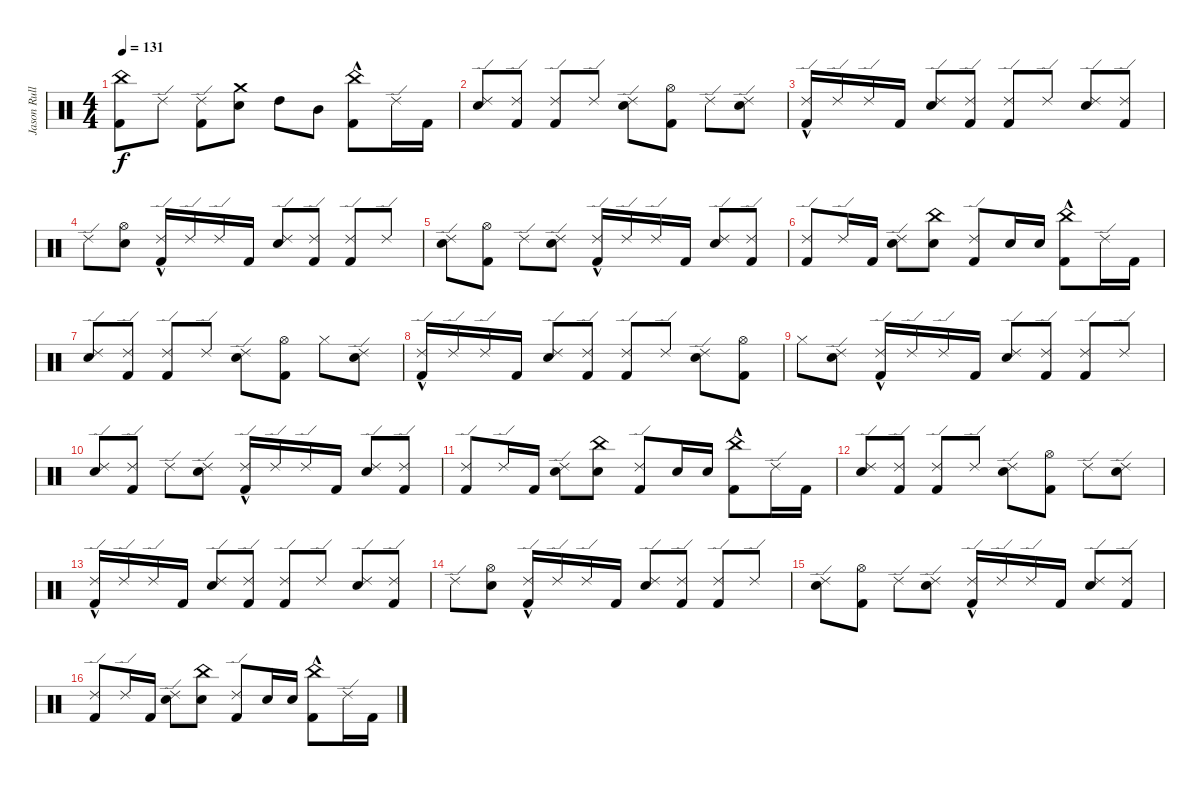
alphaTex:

\track ("Jason Rullo (Drums)" "Jason Rull") {instrument percussion}
\staff {score}
\articulation defaults
\ts (4 4)
\tempo 131
\clef neutral
\ks c
("China (hit)" "Kick (hit) 2").8{dy f} "Ride (edge) 2".8 ("Ride (edge) 2" "Kick (hit) 2").8 ("Crash medium (hit)" "Electric Snare (hit)").8 "High Tom (hit)".8 "Mid Tom (hit)".8 ("Kick (hit) 2"{hac} "China (hit)").8 "Ride (edge) 2".16 "Kick (hit) 2".16 |
("Electric Snare (hit)" "Ride (edge) 2").8 ("Kick (hit) 2" "Ride (edge) 2").8 ("Kick (hit) 2" "Ride (edge) 2").8 "Ride (edge) 2".8 ("Electric Snare (hit)" "Ride (edge) 2").8 ("Hi-Hat (open)" "Kick (hit) 2").8 "Ride (edge) 2".8 ("Electric Snare (hit)" "Ride (edge) 2").8 |
("Ride (edge) 2" "Kick (hit) 2"{hac}).16 "Ride (edge) 2".16 "Ride (edge) 2".16 "Kick (hit) 2".16 ("Electric Snare (hit)" "Ride (edge) 2").8 ("Kick (hit) 2" "Ride (edge) 2").8 ("Kick (hit) 2" "Ride (edge) 2").8 "Ride (edge) 2".8 ("Electric Snare (hit)" "Ride (edge) 2").8 ("Kick (hit) 2" "Ride (edge) 2").8 |
"Ride (edge) 2".8 ("Hi-Hat (open)" "Electric Snare (hit)").8 ("Ride (edge) 2" "Kick (hit) 2"{hac}).16 "Ride (edge) 2".16 "Ride (edge) 2".16 "Kick (hit) 2".16 ("Electric Snare (hit)" "Ride (edge) 2").8 ("Kick (hit) 2" "Ride (edge) 2").8 ("Kick (hit) 2" "Ride (edge) 2").8 "Ride (edge) 2".8 |
("Electric Snare (hit)" "Ride (edge) 2").8 ("Hi-Hat (open)" "Kick (hit) 2").8 "Ride (edge) 2".8 ("Electric Snare (hit)" "Ride (edge) 2").8 ("Ride (edge) 2" "Kick (hit) 2"{hac}).16 "Ride (edge) 2".16 "Ride (edge) 2".16 "Kick (hit) 2".16 ("Electric Snare (hit)" "Ride (edge) 2").8 ("Kick (hit) 2" "Ride (edge) 2").8 |
("Kick (hit) 2" "Ride (edge) 2").8 "Ride (edge) 2".16 "Kick (hit) 2".16 ("Electric Snare (hit)" "Ride (edge) 2").8 ("China (hit)" "Electric Snare (hit)").8 ("Ride (edge) 2" "Kick (hit) 2").8 "Electric Snare (hit)".16 "Electric Snare (hit)".16 ("Kick (hit) 2"{hac} "China (hit)").8 "Ride (edge) 2".16 "Kick (hit) 2".16 |
("Electric Snare (hit)" "Ride (edge) 2").8 ("Kick (hit) 2" "Ride (edge) 2").8 ("Kick (hit) 2" "Ride (edge) 2").8 "Ride (edge) 2".8 ("Electric Snare (hit)" "Ride (edge) 2").8 ("Hi-Hat (open)" "Kick (hit) 2").8 "Hi-Hat (closed)".8 ("Electric Snare (hit)" "Ride (edge) 2").8 |
("Ride (edge) 2" "Kick (hit) 2"{hac}).16 "Ride (edge) 2".16 "Ride (edge) 2".16 "Kick (hit) 2".16 ("Electric Snare (hit)" "Ride (edge) 2").8 ("Kick (hit) 2" "Ride (edge) 2").8 ("Kick (hit) 2" "Ride (edge) 2").8 "Ride (edge) 2".8 ("Electric Snare (hit)" "Ride (edge) 2").8 ("Hi-Hat (open)" "Kick (hit) 2").8 |
"Hi-Hat (closed)".8 ("Electric Snare (hit)" "Ride (edge) 2").8 ("Ride (edge) 2" "Kick (hit) 2"{hac}).16 "Ride (edge) 2".16 "Ride (edge) 2".16 "Kick (hit) 2".16 ("Electric Snare (hit)" "Ride (edge) 2").8 ("Kick (hit) 2" "Ride (edge) 2").8 ("Kick (hit) 2" "Ride (edge) 2").8 "Ride (edge) 2".8 |
("Electric Snare (hit)" "Ride (edge) 2").8 ("Kick (hit) 2" "Ride (edge) 2").8 "Ride (edge) 2".8 ("Electric Snare (hit)" "Ride (edge) 2").8 ("Ride (edge) 2" "Kick (hit) 2"{hac}).16 "Ride (edge) 2".16 "Ride (edge) 2".16 "Kick (hit) 2".16 ("Electric Snare (hit)" "Ride (edge) 2").8 ("Kick (hit) 2" "Ride (edge) 2").8 |
("Kick (hit) 2" "Ride (edge) 2").8 "Ride (edge) 2".16 "Kick (hit) 2".16 ("Electric Snare (hit)" "Ride (edge) 2").8 ("China (hit)" "Electric Snare (hit)").8 ("Ride (edge) 2" "Kick (hit) 2").8 "Electric Snare (hit)".16 "Electric Snare (hit)".16 ("Kick (hit) 2"{hac} "China (hit)").8 "Ride (edge) 2".16 "Kick (hit) 2".16 |
("Electric Snare (hit)" "Ride (edge) 2").8 ("Kick (hit) 2" "Ride (edge) 2").8 ("Kick (hit) 2" "Ride (edge) 2").8 "Ride (edge) 2".8 ("Electric Snare (hit)" "Ride (edge) 2").8 ("Hi-Hat (open)" "Kick (hit) 2").8 "Ride (edge) 2".8 ("Electric Snare (hit)" "Ride (edge) 2").8 |
("Ride (edge) 2" "Kick (hit) 2"{hac}).16 "Ride (edge) 2".16 "Ride (edge) 2".16 "Kick (hit) 2".16 ("Electric Snare (hit)" "Ride (edge) 2").8 ("Kick (hit) 2" "Ride (edge) 2").8 ("Kick (hit) 2" "Ride (edge) 2").8 "Ride (edge) 2".8 ("Electric Snare (hit)" "Ride (edge) 2").8 ("Kick (hit) 2" "Ride (edge) 2").8 |
"Ride (edge) 2".8 ("Hi-Hat (open)" "Electric Snare (hit)").8 ("Ride (edge) 2" "Kick (hit) 2"{hac}).16 "Ride (edge) 2".16 "Ride (edge) 2".16 "Kick (hit) 2".16 ("Electric Snare (hit)" "Ride (edge) 2").8 ("Kick (hit) 2" "Ride (edge) 2").8 ("Kick (hit) 2" "Ride (edge) 2").8 "Ride (edge) 2".8 |
("Electric Snare (hit)" "Ride (edge) 2").8 ("Hi-Hat (open)" "Kick (hit) 2").8 "Ride (edge) 2".8 ("Electric Snare (hit)" "Ride (edge) 2").8 ("Ride (edge) 2" "Kick (hit) 2"{hac}).16 "Ride (edge) 2".16 "Ride (edge) 2".16 "Kick (hit) 2".16 ("Electric Snare (hit)" "Ride (edge) 2").8 ("Kick (hit) 2" "Ride (edge) 2").8 |
("Kick (hit) 2" "Ride (edge) 2").8 "Ride (edge) 2".16 "Kick (hit) 2".16 ("Electric Snare (hit)" "Ride (edge) 2").8 ("China (hit)" "Electric Snare (hit)").8 ("Ride (edge) 2" "Kick (hit) 2").8 "Electric Snare (hit)".16 "Electric Snare (hit)".16 ("Kick (hit) 2"{hac} "China (hit)").8 "Ride (edge) 2".16 "Kick (hit) 2".16
